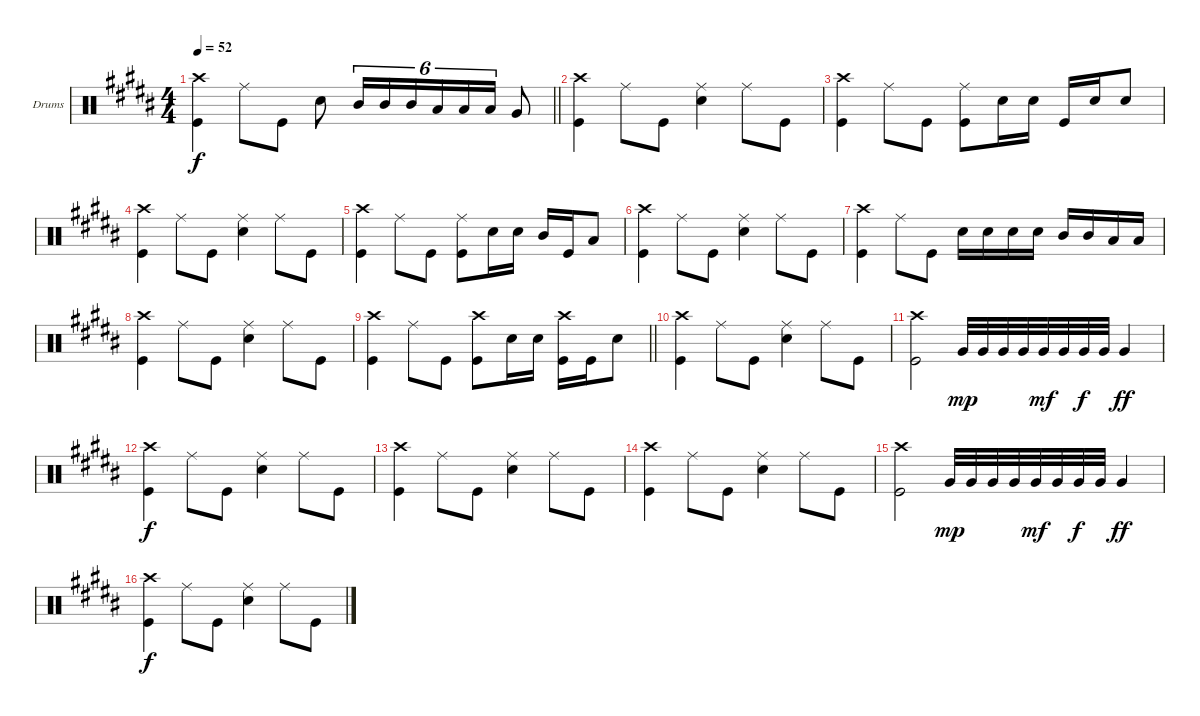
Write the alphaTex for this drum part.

\bracketExtendMode groupsimilarinstruments
\firstSystemTrackNameOrientation horizontal
\otherSystemsTrackNameOrientation horizontal
\track ("Drumkit" "Drums") {solo instrument percussion}
\staff {score}
\articulation defaults
\ts (4 4)
\tempo 52
\clef neutral
\barLineRight lightlight
\ks g#minor
("Crash high (hit)" "Kick (hit)").4{dy f} "Ride (middle)".8 "Kick (hit)".8 "Snare (hit) 2".8 "Mid Tom (hit)".16{tu (6 4)} "Mid Tom (hit)".16{tu (6 4)} "Mid Tom (hit)".16{tu (6 4)} "Low Tom (hit)".16{tu (6 4)} "Low Tom (hit)".16{tu (6 4)} "Low Tom (hit)".16{tu (6 4)} "Very Low Tom (hit)".8 |
("Crash high (hit)" "Kick (hit)").4 "Ride (middle)".8 "Kick (hit)".8 ("Ride (middle)" "Snare (hit) 2").4 "Ride (middle)".8 "Kick (hit)".8 |
("Crash high (hit)" "Kick (hit)").4 "Ride (middle)".8 "Kick (hit)".8 ("Ride (middle)" "Kick (hit)").8 "Snare (hit) 2".16 "Snare (hit) 2".16 "Kick (hit)".16 "Snare (hit) 2".16 "Snare (hit) 2".8 |
("Crash high (hit)" "Kick (hit)").4 "Ride (middle)".8 "Kick (hit)".8 ("Ride (middle)" "Snare (hit) 2").4 "Ride (middle)".8 "Kick (hit)".8 |
("Crash high (hit)" "Kick (hit)").4 "Ride (middle)".8 "Kick (hit)".8 ("Ride (middle)" "Kick (hit)").8 "Snare (hit) 2".16 "Snare (hit) 2".16 "Mid Tom (hit)".16 "Kick (hit)".16 "Low Tom (hit)".8 |
("Crash high (hit)" "Kick (hit)").4 "Ride (middle)".8 "Kick (hit)".8 ("Ride (middle)" "Snare (hit) 2").4 "Ride (middle)".8 "Kick (hit)".8 |
("Crash high (hit)" "Kick (hit)").4 "Ride (middle)".8 "Kick (hit)".8 "Snare (hit) 2".16 "Snare (hit) 2".16 "Snare (hit) 2".16 "Snare (hit) 2".16 "Mid Tom (hit)".16 "Mid Tom (hit)".16 "Low Tom (hit)".16 "Low Tom (hit)".16 |
("Crash high (hit)" "Kick (hit)").4 "Ride (middle)".8 "Kick (hit)".8 ("Ride (middle)" "Snare (hit) 2").4 "Ride (middle)".8 "Kick (hit)".8 |
\barLineRight lightlight
("Crash high (hit)" "Kick (hit)").4 "Ride (middle)".8 "Kick (hit)".8 ("Crash high (hit)" "Kick (hit)").8 "Snare (hit) 2".16 "Snare (hit) 2".16 ("Crash high (hit)" "Kick (hit)").16 "Kick (hit)".16 "Snare (hit) 2".8 |
("Crash high (hit)" "Kick (hit)").4 "Ride (middle)".8 "Kick (hit)".8 ("Ride (middle)" "Snare (hit) 2").4 "Ride (middle)".8 "Kick (hit)".8 |
("Crash high (hit)" "Kick (hit)").2 "Very Low Tom (hit)".32{dy mp} "Very Low Tom (hit)".32 "Very Low Tom (hit)".32 "Very Low Tom (hit)".32 "Very Low Tom (hit)".32{dy mf} "Very Low Tom (hit)".32 "Very Low Tom (hit)".32{dy f} "Very Low Tom (hit)".32 "Very Low Tom (hit)".4{dy ff} |
("Crash high (hit)" "Kick (hit)").4{dy f} "Ride (middle)".8 "Kick (hit)".8 ("Ride (middle)" "Snare (hit) 2").4 "Ride (middle)".8 "Kick (hit)".8 |
("Crash high (hit)" "Kick (hit)").4 "Ride (middle)".8 "Kick (hit)".8 ("Ride (middle)" "Snare (hit) 2").4 "Ride (middle)".8 "Kick (hit)".8 |
("Crash high (hit)" "Kick (hit)").4 "Ride (middle)".8 "Kick (hit)".8 ("Ride (middle)" "Snare (hit) 2").4 "Ride (middle)".8 "Kick (hit)".8 |
("Crash high (hit)" "Kick (hit)").2 "Very Low Tom (hit)".32{dy mp} "Very Low Tom (hit)".32 "Very Low Tom (hit)".32 "Very Low Tom (hit)".32 "Very Low Tom (hit)".32{dy mf} "Very Low Tom (hit)".32 "Very Low Tom (hit)".32{dy f} "Very Low Tom (hit)".32 "Very Low Tom (hit)".4{dy ff} |
("Crash high (hit)" "Kick (hit)").4{dy f} "Ride (middle)".8 "Kick (hit)".8 ("Ride (middle)" "Snare (hit) 2").4 "Ride (middle)".8 "Kick (hit)".8
